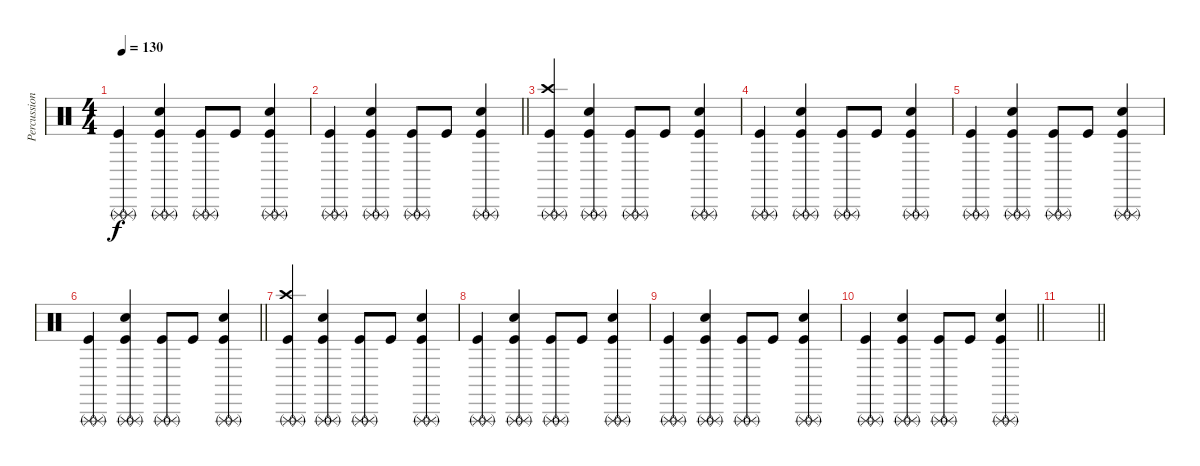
\track ("Percussion" "Percussion") {instrument percussion}
\staff {score}
\articulation defaults
\ts (4 4)
\tempo 130
\clef neutral
\ks c
("Triangle (rnute)" "Triangle (rnute)" "Kick (hit)").4{dy f} ("Triangle (rnute)" "Triangle (rnute)" "Snare (hit) 2" "Kick (hit)").4 ("Triangle (rnute)" "Triangle (rnute)" "Kick (hit)").8 "Kick (hit)".8 ("Triangle (rnute)" "Triangle (rnute)" "Snare (hit) 2" "Kick (hit)").4 |
\barLineRight lightlight
("Triangle (rnute)" "Triangle (rnute)" "Kick (hit)").4 ("Triangle (rnute)" "Triangle (rnute)" "Snare (hit) 2" "Kick (hit)").4 ("Triangle (rnute)" "Triangle (rnute)" "Kick (hit)").8 "Kick (hit)".8 ("Triangle (rnute)" "Triangle (rnute)" "Snare (hit) 2" "Kick (hit)").4 |
("Crash high (hit)" "Triangle (rnute)" "Triangle (rnute)" "Kick (hit)").4{volume 6} ("Triangle (rnute)" "Triangle (rnute)" "Snare (hit) 2" "Kick (hit)").4 ("Triangle (rnute)" "Triangle (rnute)" "Kick (hit)").8 "Kick (hit)".8 ("Triangle (rnute)" "Triangle (rnute)" "Snare (hit) 2" "Kick (hit)").4 |
("Triangle (rnute)" "Triangle (rnute)" "Kick (hit)").4 ("Triangle (rnute)" "Triangle (rnute)" "Snare (hit) 2" "Kick (hit)").4 ("Triangle (rnute)" "Triangle (rnute)" "Kick (hit)").8 "Kick (hit)".8 ("Triangle (rnute)" "Triangle (rnute)" "Snare (hit) 2" "Kick (hit)").4 |
("Triangle (rnute)" "Triangle (rnute)" "Kick (hit)").4 ("Triangle (rnute)" "Triangle (rnute)" "Snare (hit) 2" "Kick (hit)").4 ("Triangle (rnute)" "Triangle (rnute)" "Kick (hit)").8 "Kick (hit)".8 ("Triangle (rnute)" "Triangle (rnute)" "Snare (hit) 2" "Kick (hit)").4 |
\barLineRight lightlight
("Triangle (rnute)" "Triangle (rnute)" "Kick (hit)").4 ("Triangle (rnute)" "Triangle (rnute)" "Snare (hit) 2" "Kick (hit)").4 ("Triangle (rnute)" "Triangle (rnute)" "Kick (hit)").8 "Kick (hit)".8 ("Triangle (rnute)" "Triangle (rnute)" "Snare (hit) 2" "Kick (hit)").4 |
("Crash high (hit)" "Triangle (rnute)" "Triangle (rnute)" "Kick (hit)").4{volume 0} ("Triangle (rnute)" "Triangle (rnute)" "Snare (hit) 2" "Kick (hit)").4 ("Triangle (rnute)" "Triangle (rnute)" "Kick (hit)").8 "Kick (hit)".8 ("Triangle (rnute)" "Triangle (rnute)" "Snare (hit) 2" "Kick (hit)").4 |
("Triangle (rnute)" "Triangle (rnute)" "Kick (hit)").4 ("Triangle (rnute)" "Triangle (rnute)" "Snare (hit) 2" "Kick (hit)").4 ("Triangle (rnute)" "Triangle (rnute)" "Kick (hit)").8 "Kick (hit)".8 ("Triangle (rnute)" "Triangle (rnute)" "Snare (hit) 2" "Kick (hit)").4 |
("Triangle (rnute)" "Triangle (rnute)" "Kick (hit)").4 ("Triangle (rnute)" "Triangle (rnute)" "Snare (hit) 2" "Kick (hit)").4 ("Triangle (rnute)" "Triangle (rnute)" "Kick (hit)").8 "Kick (hit)".8 ("Triangle (rnute)" "Triangle (rnute)" "Snare (hit) 2" "Kick (hit)").4 |
\barLineRight lightlight
("Triangle (rnute)" "Triangle (rnute)" "Kick (hit)").4 ("Triangle (rnute)" "Triangle (rnute)" "Snare (hit) 2" "Kick (hit)").4 ("Triangle (rnute)" "Triangle (rnute)" "Kick (hit)").8 "Kick (hit)".8 ("Triangle (rnute)" "Triangle (rnute)" "Snare (hit) 2" "Kick (hit)").4 |
\barLineRight lightlight
